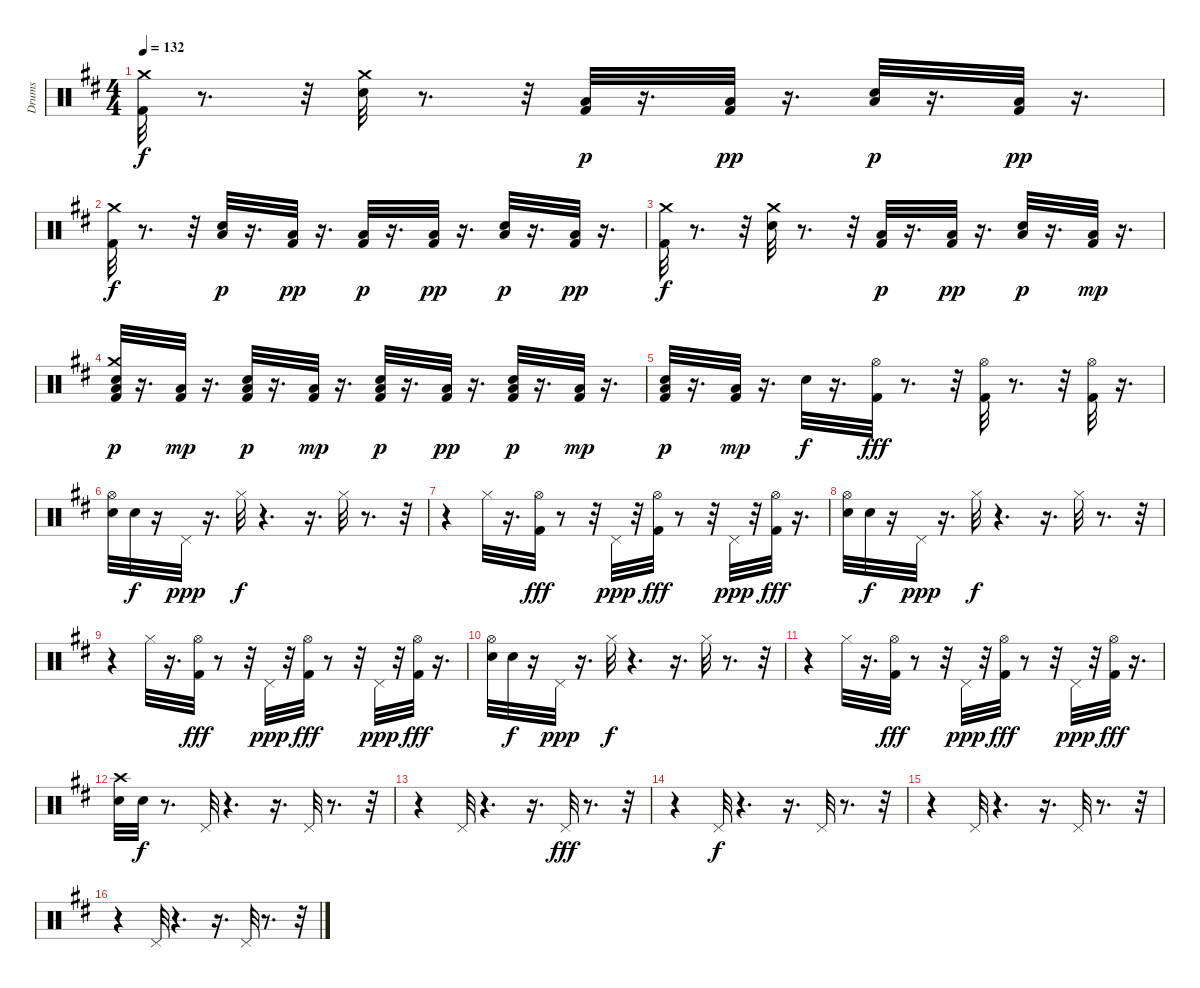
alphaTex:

\track ("Drums" "Drums") {instrument percussion}
\staff {score}
\articulation defaults
\ts (4 4)
\tempo 132
\clef neutral
\ks d
("Kick (hit) 2" "Crash medium (hit)").32{dy f} r.8{d} r.32 ("Electric Snare (hit)" "Crash medium (hit)").32 r.8{d} r.32 ("Low Floor Tom (hit)" "Kick (hit) 2").32{dy p} r.16{d} ("Kick (hit) 2" "Low Floor Tom (hit)").32{dy pp} r.16{d} ("Low Floor Tom (hit)" "Electric Snare (hit)").32{dy p} r.16{d} ("Kick (hit) 2" "Low Floor Tom (hit)").32{dy pp} r.16{d} |
("Kick (hit) 2" "Crash medium (hit)").32{dy f} r.8{d} r.32 ("Low Floor Tom (hit)" "Electric Snare (hit)").32{dy p} r.16{d} ("Kick (hit) 2" "Low Floor Tom (hit)").32{dy pp} r.16{d} ("Kick (hit) 2" "Low Floor Tom (hit)").32{dy p} r.16{d} ("Kick (hit) 2" "Low Floor Tom (hit)").32{dy pp} r.16{d} ("Low Floor Tom (hit)" "Electric Snare (hit)").32{dy p} r.16{d} ("Kick (hit) 2" "Low Floor Tom (hit)").32{dy pp} r.16{d} |
("Kick (hit) 2" "Crash medium (hit)").32{dy f} r.8{d} r.32 ("Crash medium (hit)" "Electric Snare (hit)").32 r.8{d} r.32 ("Low Floor Tom (hit)" "Kick (hit) 2").32{dy p} r.16{d} ("Kick (hit) 2" "Low Floor Tom (hit)").32{dy pp} r.16{d} ("Low Floor Tom (hit)" "Electric Snare (hit)").32{dy p} r.16{d} ("Low Floor Tom (hit)" "Kick (hit) 2").32{dy mp} r.16{d} |
("Electric Snare (hit)" "Crash medium (hit)" "Low Floor Tom (hit)" "Kick (hit) 2").32{dy p} r.16{d} ("Low Floor Tom (hit)" "Kick (hit) 2").32{dy mp} r.16{d} ("Kick (hit) 2" "Low Floor Tom (hit)" "Electric Snare (hit)").32{dy p} r.16{d} ("Low Floor Tom (hit)" "Kick (hit) 2").32{dy mp} r.16{d} ("Electric Snare (hit)" "Kick (hit) 2" "Low Floor Tom (hit)").32{dy p} r.16{d} ("Kick (hit) 2" "Low Floor Tom (hit)").32{dy pp} r.16{d} ("Kick (hit) 2" "Low Floor Tom (hit)" "Electric Snare (hit)").32{dy p} r.16{d} ("Low Floor Tom (hit)" "Kick (hit) 2").32{dy mp} r.16{d} |
("Electric Snare (hit)" "Low Floor Tom (hit)" "Kick (hit) 2").32{dy p} r.16{d} ("Low Floor Tom (hit)" "Kick (hit) 2").32{dy mp} r.16{d} "Electric Snare (hit)".32{dy f} r.16{d} ("Hi-Hat (open)" "Kick (hit) 2").32{dy fff} r.8{d} r.32 ("Hi-Hat (open)" "Kick (hit) 2").32 r.8{d} r.32 ("Kick (hit) 2" "Hi-Hat (open)").32 r.16{d} |
("Hi-Hat (open)" "Electric Snare (hit)").32 "Snare (hit) 2".32{dy f} r.16 "Pedal Hi-Hat (hit)".32{dy ppp} r.16{d} "Hi-Hat (closed)".32{dy f} r.4{d} r.16{d} "Hi-Hat (closed)".32 r.8{d} r.32 |
r.4 "Hi-Hat (closed)".32 r.16{d} ("Hi-Hat (open)" "Kick (hit) 2").32{dy fff} r.8 r.32 "Pedal Hi-Hat (hit)".32{dy ppp} r.32 ("Hi-Hat (open)" "Kick (hit) 2").32{dy fff} r.8 r.32 "Pedal Hi-Hat (hit)".32{dy ppp} r.32 ("Hi-Hat (open)" "Kick (hit) 2").32{dy fff} r.16{d} |
("Hi-Hat (open)" "Electric Snare (hit)").32 "Snare (hit) 2".32{dy f} r.16 "Pedal Hi-Hat (hit)".32{dy ppp} r.16{d} "Hi-Hat (closed)".32{dy f} r.4{d} r.16{d} "Hi-Hat (closed)".32 r.8{d} r.32 |
r.4 "Hi-Hat (closed)".32 r.16{d} ("Hi-Hat (open)" "Kick (hit) 2").32{dy fff} r.8 r.32 "Pedal Hi-Hat (hit)".32{dy ppp} r.32 ("Hi-Hat (open)" "Kick (hit) 2").32{dy fff} r.8 r.32 "Pedal Hi-Hat (hit)".32{dy ppp} r.32 ("Hi-Hat (open)" "Kick (hit) 2").32{dy fff} r.16{d} |
("Hi-Hat (open)" "Electric Snare (hit)").32 "Snare (hit) 2".32{dy f} r.16 "Pedal Hi-Hat (hit)".32{dy ppp} r.16{d} "Hi-Hat (closed)".32{dy f} r.4{d} r.16{d} "Hi-Hat (closed)".32 r.8{d} r.32 |
r.4 "Hi-Hat (closed)".32 r.16{d} ("Hi-Hat (open)" "Kick (hit) 2").32{dy fff} r.8 r.32 "Pedal Hi-Hat (hit)".32{dy ppp} r.32 ("Hi-Hat (open)" "Kick (hit) 2").32{dy fff} r.8 r.32 "Pedal Hi-Hat (hit)".32{dy ppp} r.32 ("Hi-Hat (open)" "Kick (hit) 2").32{dy fff} r.16{d} |
("Crash high (hit)" "Electric Snare (hit)").32 "Snare (hit) 2".32{dy f} r.8{d} "Pedal Hi-Hat (hit)".32 r.4{d} r.16{d} "Pedal Hi-Hat (hit)".32 r.8{d} r.32 |
r.4 "Pedal Hi-Hat (hit)".32 r.4{d} r.16{d} "Pedal Hi-Hat (hit)".32{dy fff} r.8{d} r.32 |
r.4 "Pedal Hi-Hat (hit)".32{dy f} r.4{d} r.16{d} "Pedal Hi-Hat (hit)".32 r.8{d} r.32 |
r.4 "Pedal Hi-Hat (hit)".32 r.4{d} r.16{d} "Pedal Hi-Hat (hit)".32 r.8{d} r.32 |
r.4 "Pedal Hi-Hat (hit)".32 r.4{d} r.16{d} "Pedal Hi-Hat (hit)".32 r.8{d} r.32
